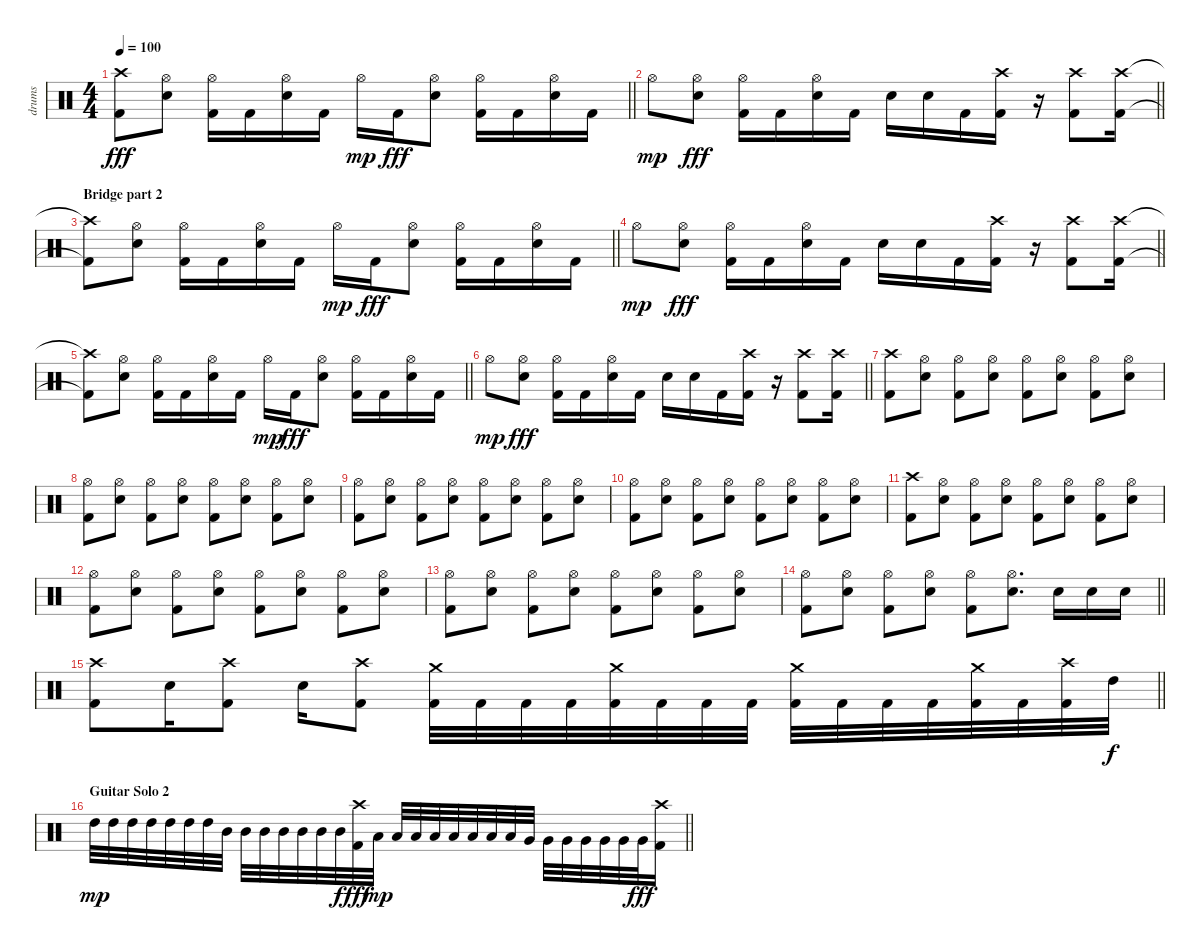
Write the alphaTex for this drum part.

\track ("drums" "drums") {instrument percussion}
\staff {score}
\articulation defaults
\ts (4 4)
\tempo 100
\clef neutral
\barLineRight lightlight
\ks c
("Crash high (hit)"{t} "Kick (hit) 2"{t}).8{dy fff} ("Hi-Hat (open)" "Snare (hit) 2").8 ("Hi-Hat (open)" "Kick (hit) 2").16 "Kick (hit) 2".16 ("Hi-Hat (open)" "Snare (hit) 2").16 "Kick (hit) 2".16 "Hi-Hat (open)".16{dy mp} "Kick (hit) 2".16{dy fff} ("Hi-Hat (open)" "Snare (hit) 2").8 ("Hi-Hat (open)" "Kick (hit) 2").16 "Kick (hit) 2".16 ("Hi-Hat (open)" "Snare (hit) 2").16 "Kick (hit) 2".16 |
\barLineRight lightlight "Hi-Hat (open)".8{dy mp}
("Hi-Hat (open)" "Snare (hit) 2").8{dy fff} ("Hi-Hat (open)" "Kick (hit) 2").16 "Kick (hit) 2".16 ("Hi-Hat (open)" "Snare (hit) 2").16 "Kick (hit) 2".16 "Snare (hit) 2".16 "Snare (hit) 2".16 "Kick (hit) 2".16 ("Crash high (hit)" "Kick (hit) 2").16 r.16 ("Crash high (hit)" "Kick (hit) 2").8 ("Crash high (hit)" "Kick (hit) 2").16 |
\section ("" "Bridge part 2")
\barLineRight lightlight
("Crash high (hit)"{t} "Kick (hit) 2"{t}).8 ("Hi-Hat (open)" "Snare (hit) 2").8 ("Hi-Hat (open)" "Kick (hit) 2").16 "Kick (hit) 2".16 ("Hi-Hat (open)" "Snare (hit) 2").16 "Kick (hit) 2".16 "Hi-Hat (open)".16{dy mp} "Kick (hit) 2".16{dy fff} ("Hi-Hat (open)" "Snare (hit) 2").8 ("Hi-Hat (open)" "Kick (hit) 2").16 "Kick (hit) 2".16 ("Hi-Hat (open)" "Snare (hit) 2").16 "Kick (hit) 2".16 |
\barLineRight lightlight "Hi-Hat (open)".8{dy mp}
("Hi-Hat (open)" "Snare (hit) 2").8{dy fff} ("Hi-Hat (open)" "Kick (hit) 2").16 "Kick (hit) 2".16 ("Hi-Hat (open)" "Snare (hit) 2").16 "Kick (hit) 2".16 "Snare (hit) 2".16 "Snare (hit) 2".16 "Kick (hit) 2".16 ("Crash high (hit)" "Kick (hit) 2").16 r.16 ("Crash high (hit)" "Kick (hit) 2").8 ("Crash high (hit)" "Kick (hit) 2").16 |
\barLineRight lightlight
("Crash high (hit)"{t} "Kick (hit) 2"{t}).8 ("Hi-Hat (open)" "Snare (hit) 2").8 ("Hi-Hat (open)" "Kick (hit) 2").16 "Kick (hit) 2".16 ("Hi-Hat (open)" "Snare (hit) 2").16 "Kick (hit) 2".16 "Hi-Hat (open)".16{dy mp} "Kick (hit) 2".16{dy fff} ("Hi-Hat (open)" "Snare (hit) 2").8 ("Hi-Hat (open)" "Kick (hit) 2").16 "Kick (hit) 2".16 ("Hi-Hat (open)" "Snare (hit) 2").16 "Kick (hit) 2".16 |
\barLineRight lightlight "Hi-Hat (open)".8{dy mp}
("Hi-Hat (open)" "Snare (hit) 2").8{dy fff} ("Hi-Hat (open)" "Kick (hit) 2").16 "Kick (hit) 2".16 ("Hi-Hat (open)" "Snare (hit) 2").16 "Kick (hit) 2".16 "Snare (hit) 2".16 "Snare (hit) 2".16 "Kick (hit) 2".16 ("Crash high (hit)" "Kick (hit) 2").16 r.16 ("Crash high (hit)" "Kick (hit) 2").8 ("Crash high (hit)" "Kick (hit) 2").16 |
("Crash high (hit)" "Kick (hit) 2").8 ("Hi-Hat (open)" "Snare (hit) 2").8 ("Hi-Hat (open)" "Kick (hit) 2").8 ("Hi-Hat (open)" "Snare (hit) 2").8 ("Hi-Hat (open)" "Kick (hit) 2").8 ("Hi-Hat (open)" "Snare (hit) 2").8 ("Hi-Hat (open)" "Kick (hit) 2").8 ("Hi-Hat (open)" "Snare (hit) 2").8 |
("Hi-Hat (open)" "Kick (hit) 2").8 ("Hi-Hat (open)" "Snare (hit) 2").8 ("Hi-Hat (open)" "Kick (hit) 2").8 ("Hi-Hat (open)" "Snare (hit) 2").8 ("Hi-Hat (open)" "Kick (hit) 2").8 ("Hi-Hat (open)" "Snare (hit) 2").8 ("Hi-Hat (open)" "Kick (hit) 2").8 ("Hi-Hat (open)" "Snare (hit) 2").8 |
("Hi-Hat (open)" "Kick (hit) 2").8 ("Hi-Hat (open)" "Snare (hit) 2").8 ("Hi-Hat (open)" "Kick (hit) 2").8 ("Hi-Hat (open)" "Snare (hit) 2").8 ("Hi-Hat (open)" "Kick (hit) 2").8 ("Hi-Hat (open)" "Snare (hit) 2").8 ("Hi-Hat (open)" "Kick (hit) 2").8 ("Hi-Hat (open)" "Snare (hit) 2").8 |
("Hi-Hat (open)" "Kick (hit) 2").8 ("Hi-Hat (open)" "Snare (hit) 2").8 ("Hi-Hat (open)" "Kick (hit) 2").8 ("Hi-Hat (open)" "Snare (hit) 2").8 ("Hi-Hat (open)" "Kick (hit) 2").8 ("Hi-Hat (open)" "Snare (hit) 2").8 ("Hi-Hat (open)" "Kick (hit) 2").8 ("Hi-Hat (open)" "Snare (hit) 2").8 |
("Crash high (hit)" "Kick (hit) 2").8 ("Hi-Hat (open)" "Snare (hit) 2").8 ("Hi-Hat (open)" "Kick (hit) 2").8 ("Hi-Hat (open)" "Snare (hit) 2").8 ("Hi-Hat (open)" "Kick (hit) 2").8 ("Hi-Hat (open)" "Snare (hit) 2").8 ("Hi-Hat (open)" "Kick (hit) 2").8 ("Hi-Hat (open)" "Snare (hit) 2").8 |
("Hi-Hat (open)" "Kick (hit) 2").8 ("Hi-Hat (open)" "Snare (hit) 2").8 ("Hi-Hat (open)" "Kick (hit) 2").8 ("Hi-Hat (open)" "Snare (hit) 2").8 ("Hi-Hat (open)" "Kick (hit) 2").8 ("Hi-Hat (open)" "Snare (hit) 2").8 ("Hi-Hat (open)" "Kick (hit) 2").8 ("Hi-Hat (open)" "Snare (hit) 2").8 |
("Hi-Hat (open)" "Kick (hit) 2").8 ("Hi-Hat (open)" "Snare (hit) 2").8 ("Hi-Hat (open)" "Kick (hit) 2").8 ("Hi-Hat (open)" "Snare (hit) 2").8 ("Hi-Hat (open)" "Kick (hit) 2").8 ("Hi-Hat (open)" "Snare (hit) 2").8 ("Hi-Hat (open)" "Kick (hit) 2").8 ("Hi-Hat (open)" "Snare (hit) 2").8 |
\barLineRight lightlight
("Hi-Hat (open)" "Kick (hit) 2").8 ("Hi-Hat (open)" "Snare (hit) 2").8 ("Hi-Hat (open)" "Kick (hit) 2").8 ("Hi-Hat (open)" "Snare (hit) 2").8 ("Hi-Hat (open)" "Kick (hit) 2").8 ("Hi-Hat (open)" "Snare (hit) 2").8{d} "Snare (hit) 2".16 "Snare (hit) 2".16 "Snare (hit) 2".16 |
\barLineRight lightlight
("Crash high (hit)" "Kick (hit) 2").8 "Snare (hit) 2".16 ("Crash high (hit)" "Kick (hit) 2").8 "Snare (hit) 2".16 ("Crash high (hit)" "Kick (hit) 2").8 ("Crash medium (hit)" "Kick (hit) 2").32 "Kick (hit) 2".32 "Kick (hit) 2".32 "Kick (hit) 2".32 ("Crash medium (hit)" "Kick (hit) 2").32 "Kick (hit) 2".32 "Kick (hit) 2".32 "Kick (hit) 2".32 ("Crash medium (hit)" "Kick (hit) 2").32 "Kick (hit) 2".32 "Kick (hit) 2".32 "Kick (hit) 2".32 ("Crash medium (hit)" "Kick (hit) 2").32 "Kick (hit) 2".32 ("Crash high (hit)" "Kick (hit) 2").32 "High Tom (hit)".32{dy f} |
\section ("" "Guitar Solo 2")
\barLineRight lightlight "High Tom (hit)".32{dy mp} "High Tom (hit)".32 "High Tom (hit)".32 "High Tom (hit)".32 "High Tom (hit)".32 "High Tom (hit)".32 "High Tom (hit)".32 "Mid Tom (hit)".32 "Mid Tom (hit)".32 "Mid Tom (hit)".32 "Mid Tom (hit)".32 "Mid Tom (hit)".32 "Mid Tom (hit)".32 "Mid Tom (hit)".32{dy f}
("Crash high (hit)" "Kick (hit) 2").32{dy fff} "Low Tom (hit)".32{dy mp} "Low Tom (hit)".32 "Low Tom (hit)".32 "Low Tom (hit)".32 "Low Tom (hit)".32 "Low Tom (hit)".32 "Low Tom (hit)".32 "Low Tom (hit)".32 "Very Low Tom (hit)".32 "Very Low Tom (hit)".32 "Very Low Tom (hit)".32 "Very Low Tom (hit)".32 "Very Low Tom (hit)".32 "Very Low Tom (hit)".32 "Very Low Tom (hit)".32{dy fff} ("Crash high (hit)" "Kick (hit) 2").16
